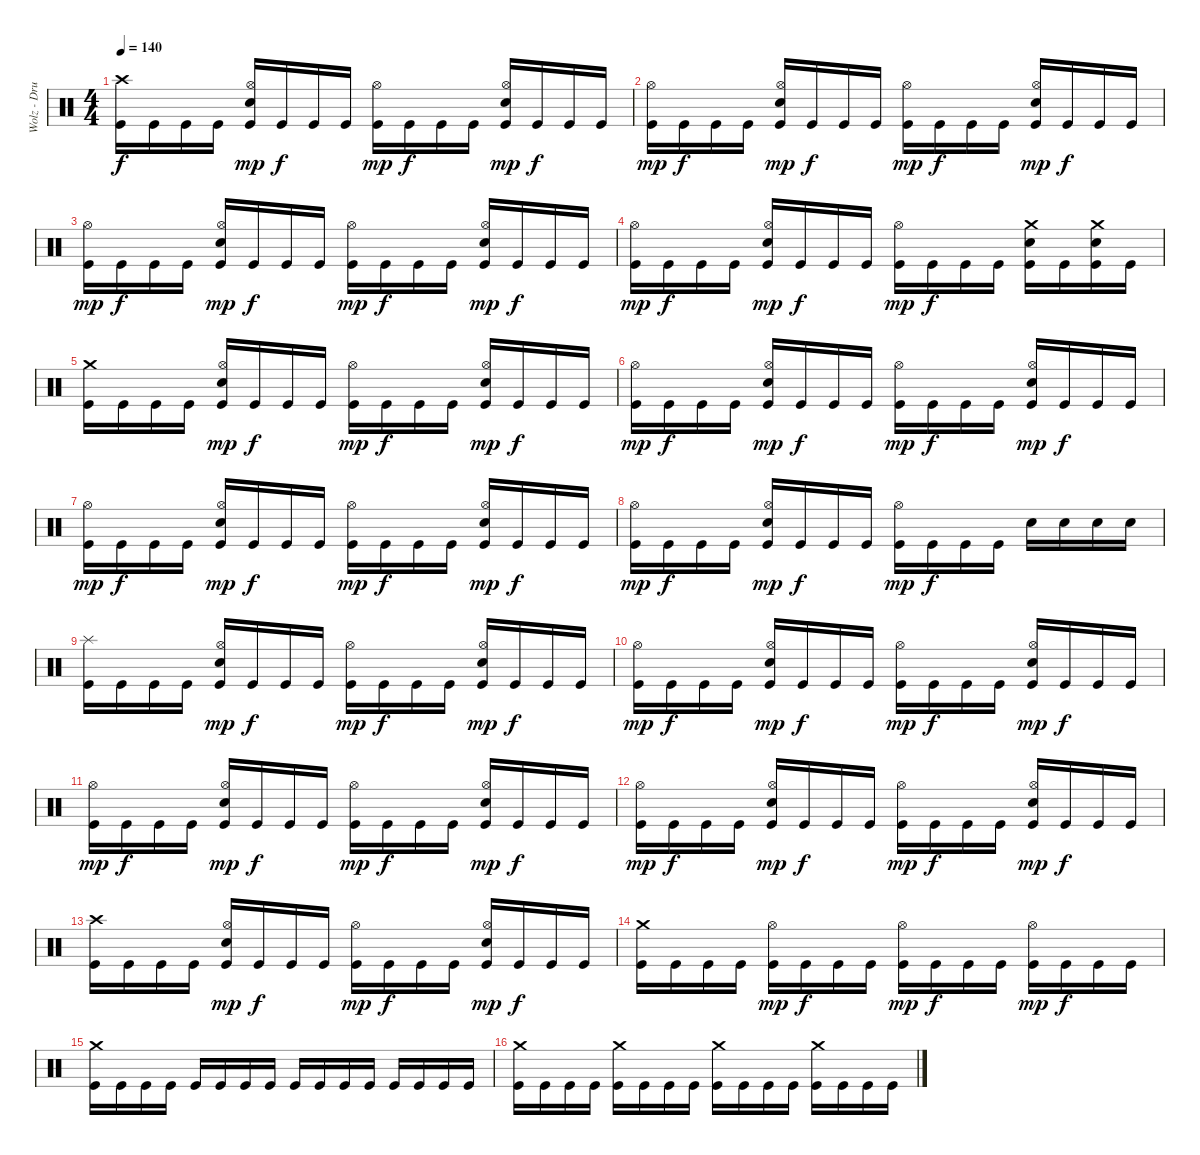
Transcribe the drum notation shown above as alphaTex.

\track ("Wolz - Drums" "Wolz - Dru") {instrument percussion}
\staff {score}
\articulation defaults
\ts (4 4)
\tempo 140
\clef neutral
\ks c
("Crash high (hit)" "Kick (hit)").16{dy f} "Kick (hit)".16 "Kick (hit)".16 "Kick (hit)".16 ("Hi-Hat (open)" "Electric Snare (hit)" "Kick (hit)").16{dy mp} "Kick (hit)".16{dy f} "Kick (hit)".16 "Kick (hit)".16 ("Hi-Hat (open)" "Kick (hit)").16{dy mp} "Kick (hit)".16{dy f} "Kick (hit)".16 "Kick (hit)".16 ("Hi-Hat (open)" "Electric Snare (hit)" "Kick (hit)").16{dy mp} "Kick (hit)".16{dy f} "Kick (hit)".16 "Kick (hit)".16 |
("Hi-Hat (open)" "Kick (hit)").16{dy mp} "Kick (hit)".16{dy f} "Kick (hit)".16 "Kick (hit)".16 ("Hi-Hat (open)" "Electric Snare (hit)" "Kick (hit)").16{dy mp} "Kick (hit)".16{dy f} "Kick (hit)".16 "Kick (hit)".16 ("Hi-Hat (open)" "Kick (hit)").16{dy mp} "Kick (hit)".16{dy f} "Kick (hit)".16 "Kick (hit)".16 ("Hi-Hat (open)" "Electric Snare (hit)" "Kick (hit)").16{dy mp} "Kick (hit)".16{dy f} "Kick (hit)".16 "Kick (hit)".16 |
("Hi-Hat (open)" "Kick (hit)").16{dy mp} "Kick (hit)".16{dy f} "Kick (hit)".16 "Kick (hit)".16 ("Hi-Hat (open)" "Electric Snare (hit)" "Kick (hit)").16{dy mp} "Kick (hit)".16{dy f} "Kick (hit)".16 "Kick (hit)".16 ("Hi-Hat (open)" "Kick (hit)").16{dy mp} "Kick (hit)".16{dy f} "Kick (hit)".16 "Kick (hit)".16 ("Hi-Hat (open)" "Electric Snare (hit)" "Kick (hit)").16{dy mp} "Kick (hit)".16{dy f} "Kick (hit)".16 "Kick (hit)".16 |
("Hi-Hat (open)" "Kick (hit)").16{dy mp} "Kick (hit)".16{dy f} "Kick (hit)".16 "Kick (hit)".16 ("Hi-Hat (open)" "Electric Snare (hit)" "Kick (hit)").16{dy mp} "Kick (hit)".16{dy f} "Kick (hit)".16 "Kick (hit)".16 ("Hi-Hat (open)" "Kick (hit)").16{dy mp} "Kick (hit)".16{dy f} "Kick (hit)".16 "Kick (hit)".16 ("Crash medium (hit)" "Electric Snare (hit)" "Kick (hit)").16 "Kick (hit)".16 ("Crash medium (hit)" "Electric Snare (hit)" "Kick (hit)").16 "Kick (hit)".16 |
("Crash medium (hit)" "Kick (hit)").16 "Kick (hit)".16 "Kick (hit)".16 "Kick (hit)".16 ("Hi-Hat (open)" "Electric Snare (hit)" "Kick (hit)").16{dy mp} "Kick (hit)".16{dy f} "Kick (hit)".16 "Kick (hit)".16 ("Hi-Hat (open)" "Kick (hit)").16{dy mp} "Kick (hit)".16{dy f} "Kick (hit)".16 "Kick (hit)".16 ("Hi-Hat (open)" "Electric Snare (hit)" "Kick (hit)").16{dy mp} "Kick (hit)".16{dy f} "Kick (hit)".16 "Kick (hit)".16 |
("Hi-Hat (open)" "Kick (hit)").16{dy mp} "Kick (hit)".16{dy f} "Kick (hit)".16 "Kick (hit)".16 ("Hi-Hat (open)" "Electric Snare (hit)" "Kick (hit)").16{dy mp} "Kick (hit)".16{dy f} "Kick (hit)".16 "Kick (hit)".16 ("Hi-Hat (open)" "Kick (hit)").16{dy mp} "Kick (hit)".16{dy f} "Kick (hit)".16 "Kick (hit)".16 ("Hi-Hat (open)" "Electric Snare (hit)" "Kick (hit)").16{dy mp} "Kick (hit)".16{dy f} "Kick (hit)".16 "Kick (hit)".16 |
("Hi-Hat (open)" "Kick (hit)").16{dy mp} "Kick (hit)".16{dy f} "Kick (hit)".16 "Kick (hit)".16 ("Hi-Hat (open)" "Electric Snare (hit)" "Kick (hit)").16{dy mp} "Kick (hit)".16{dy f} "Kick (hit)".16 "Kick (hit)".16 ("Hi-Hat (open)" "Kick (hit)").16{dy mp} "Kick (hit)".16{dy f} "Kick (hit)".16 "Kick (hit)".16 ("Hi-Hat (open)" "Electric Snare (hit)" "Kick (hit)").16{dy mp} "Kick (hit)".16{dy f} "Kick (hit)".16 "Kick (hit)".16 |
("Hi-Hat (open)" "Kick (hit)").16{dy mp} "Kick (hit)".16{dy f} "Kick (hit)".16 "Kick (hit)".16 ("Hi-Hat (open)" "Electric Snare (hit)" "Kick (hit)").16{dy mp} "Kick (hit)".16{dy f} "Kick (hit)".16 "Kick (hit)".16 ("Hi-Hat (open)" "Kick (hit)").16{dy mp} "Kick (hit)".16{dy f} "Kick (hit)".16 "Kick (hit)".16 "Electric Snare (hit)".16 "Electric Snare (hit)".16 "Electric Snare (hit)".16 "Electric Snare (hit)".16 |
("Splash (hit)" "Kick (hit)").16 "Kick (hit)".16 "Kick (hit)".16 "Kick (hit)".16 ("Hi-Hat (open)" "Electric Snare (hit)" "Kick (hit)").16{dy mp} "Kick (hit)".16{dy f} "Kick (hit)".16 "Kick (hit)".16 ("Hi-Hat (open)" "Kick (hit)").16{dy mp} "Kick (hit)".16{dy f} "Kick (hit)".16 "Kick (hit)".16 ("Hi-Hat (open)" "Electric Snare (hit)" "Kick (hit)").16{dy mp} "Kick (hit)".16{dy f} "Kick (hit)".16 "Kick (hit)".16 |
("Hi-Hat (open)" "Kick (hit)").16{dy mp} "Kick (hit)".16{dy f} "Kick (hit)".16 "Kick (hit)".16 ("Hi-Hat (open)" "Electric Snare (hit)" "Kick (hit)").16{dy mp} "Kick (hit)".16{dy f} "Kick (hit)".16 "Kick (hit)".16 ("Hi-Hat (open)" "Kick (hit)").16{dy mp} "Kick (hit)".16{dy f} "Kick (hit)".16 "Kick (hit)".16 ("Hi-Hat (open)" "Electric Snare (hit)" "Kick (hit)").16{dy mp} "Kick (hit)".16{dy f} "Kick (hit)".16 "Kick (hit)".16 |
("Hi-Hat (open)" "Kick (hit)").16{dy mp} "Kick (hit)".16{dy f} "Kick (hit)".16 "Kick (hit)".16 ("Hi-Hat (open)" "Electric Snare (hit)" "Kick (hit)").16{dy mp} "Kick (hit)".16{dy f} "Kick (hit)".16 "Kick (hit)".16 ("Hi-Hat (open)" "Kick (hit)").16{dy mp} "Kick (hit)".16{dy f} "Kick (hit)".16 "Kick (hit)".16 ("Hi-Hat (open)" "Electric Snare (hit)" "Kick (hit)").16{dy mp} "Kick (hit)".16{dy f} "Kick (hit)".16 "Kick (hit)".16 |
("Hi-Hat (open)" "Kick (hit)").16{dy mp} "Kick (hit)".16{dy f} "Kick (hit)".16 "Kick (hit)".16 ("Hi-Hat (open)" "Electric Snare (hit)" "Kick (hit)").16{dy mp} "Kick (hit)".16{dy f} "Kick (hit)".16 "Kick (hit)".16 ("Hi-Hat (open)" "Kick (hit)").16{dy mp} "Kick (hit)".16{dy f} "Kick (hit)".16 "Kick (hit)".16 ("Hi-Hat (open)" "Electric Snare (hit)" "Kick (hit)").16{dy mp} "Kick (hit)".16{dy f} "Kick (hit)".16 "Kick (hit)".16 |
("Crash high (hit)" "Kick (hit)").16 "Kick (hit)".16 "Kick (hit)".16 "Kick (hit)".16 ("Hi-Hat (open)" "Electric Snare (hit)" "Kick (hit)").16{dy mp} "Kick (hit)".16{dy f} "Kick (hit)".16 "Kick (hit)".16 ("Hi-Hat (open)" "Kick (hit)").16{dy mp} "Kick (hit)".16{dy f} "Kick (hit)".16 "Kick (hit)".16 ("Hi-Hat (open)" "Electric Snare (hit)" "Kick (hit)").16{dy mp} "Kick (hit)".16{dy f} "Kick (hit)".16 "Kick (hit)".16 |
("Crash medium (hit)" "Kick (hit)").16 "Kick (hit)".16 "Kick (hit)".16 "Kick (hit)".16 ("Hi-Hat (open)" "Kick (hit)").16{dy mp} "Kick (hit)".16{dy f} "Kick (hit)".16 "Kick (hit)".16 ("Hi-Hat (open)" "Kick (hit)").16{dy mp} "Kick (hit)".16{dy f} "Kick (hit)".16 "Kick (hit)".16 ("Hi-Hat (open)" "Kick (hit)").16{dy mp} "Kick (hit)".16{dy f} "Kick (hit)".16 "Kick (hit)".16 |
("Crash medium (hit)" "Kick (hit)").16 "Kick (hit)".16 "Kick (hit)".16 "Kick (hit)".16 "Kick (hit)".16 "Kick (hit)".16 "Kick (hit)".16 "Kick (hit)".16 "Kick (hit)".16 "Kick (hit)".16 "Kick (hit)".16 "Kick (hit)".16 "Kick (hit)".16 "Kick (hit)".16 "Kick (hit)".16 "Kick (hit)".16 |
("Crash medium (hit)" "Kick (hit)").16 "Kick (hit)".16 "Kick (hit)".16 "Kick (hit)".16 ("Crash medium (hit)" "Kick (hit)").16 "Kick (hit)".16 "Kick (hit)".16 "Kick (hit)".16 ("Crash medium (hit)" "Kick (hit)").16 "Kick (hit)".16 "Kick (hit)".16 "Kick (hit)".16 ("Crash medium (hit)" "Kick (hit)").16 "Kick (hit)".16 "Kick (hit)".16 "Kick (hit)".16
